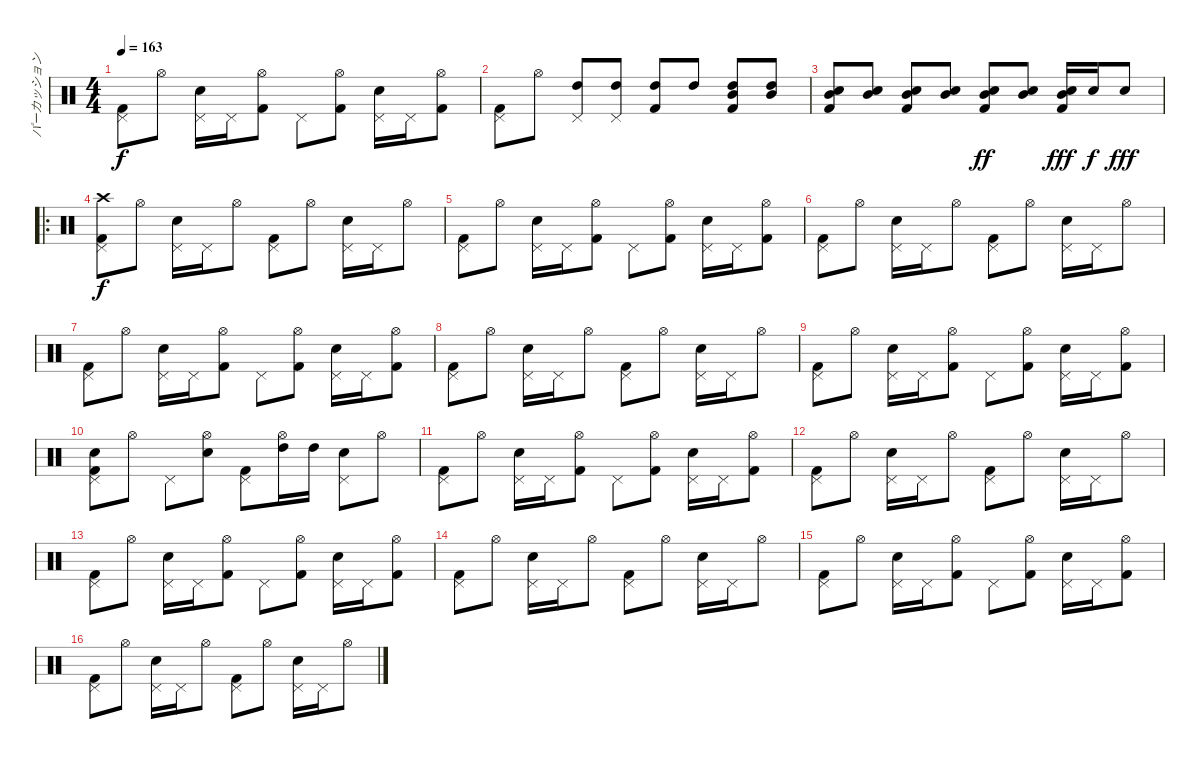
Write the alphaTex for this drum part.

\track ("パーカッション" "パーカッション") {instrument percussion}
\staff {score}
\articulation defaults
\ts (4 4)
\tempo 163
\clef neutral
\ks c
("Pedal Hi-Hat (hit)" "Kick (hit) 2").8{dy f} "Hi-Hat (open)".8 ("Pedal Hi-Hat (hit)" "Snare (hit) 2").16 "Pedal Hi-Hat (hit)".16 ("Hi-Hat (open)" "Kick (hit) 2").8 "Pedal Hi-Hat (hit)".8 ("Hi-Hat (open)" "Kick (hit) 2").8 ("Pedal Hi-Hat (hit)" "Snare (hit) 2").16 "Pedal Hi-Hat (hit)".16 ("Hi-Hat (open)" "Kick (hit) 2").8 |
("Pedal Hi-Hat (hit)" "Kick (hit) 2").8 "Hi-Hat (open)".8 ("Pedal Hi-Hat (hit)" "High Tom (hit)").8 ("Pedal Hi-Hat (hit)" "High Tom (hit)").8 ("High Tom (hit)" "Kick (hit) 2").8 "High Tom (hit)".8 ("Mid Tom (hit)" "High Tom (hit)" "Kick (hit) 2").8 ("Mid Tom (hit)" "High Tom (hit)").8 |
("Mid Tom (hit)" "Snare (hit) 2" "Kick (hit) 2").8 ("Mid Tom (hit)" "Snare (hit) 2").8 ("Mid Tom (hit)" "Snare (hit) 2" "Kick (hit) 2").8 ("Mid Tom (hit)" "Snare (hit) 2").8 ("Mid Tom (hit)" "Snare (hit) 2" "Kick (hit) 2").8{dy ff} ("Mid Tom (hit)" "Snare (hit) 2").8 ("Mid Tom (hit)" "Snare (hit) 2" "Kick (hit) 2").16{dy fff} "Snare (hit) 2".16{dy f} "Snare (hit) 2".8{dy fff} |
\ro
("Crash high (hit)" "Pedal Hi-Hat (hit)" "Kick (hit) 2").8{dy f} "Hi-Hat (open)".8 ("Pedal Hi-Hat (hit)" "Snare (hit) 2").16 "Pedal Hi-Hat (hit)".16 "Hi-Hat (open)".8 ("Pedal Hi-Hat (hit)" "Kick (hit) 2").8 "Hi-Hat (open)".8 ("Pedal Hi-Hat (hit)" "Snare (hit) 2").16 "Pedal Hi-Hat (hit)".16 "Hi-Hat (open)".8 |
("Pedal Hi-Hat (hit)" "Kick (hit) 2").8 "Hi-Hat (open)".8 ("Pedal Hi-Hat (hit)" "Snare (hit) 2").16 "Pedal Hi-Hat (hit)".16 ("Hi-Hat (open)" "Kick (hit) 2").8 "Pedal Hi-Hat (hit)".8 ("Hi-Hat (open)" "Kick (hit) 2").8 ("Pedal Hi-Hat (hit)" "Snare (hit) 2").16 "Pedal Hi-Hat (hit)".16 ("Hi-Hat (open)" "Kick (hit) 2").8 |
("Pedal Hi-Hat (hit)" "Kick (hit) 2").8 "Hi-Hat (open)".8 ("Pedal Hi-Hat (hit)" "Snare (hit) 2").16 "Pedal Hi-Hat (hit)".16 "Hi-Hat (open)".8 ("Pedal Hi-Hat (hit)" "Kick (hit) 2").8 "Hi-Hat (open)".8 ("Pedal Hi-Hat (hit)" "Snare (hit) 2").16 "Pedal Hi-Hat (hit)".16 "Hi-Hat (open)".8 |
("Pedal Hi-Hat (hit)" "Kick (hit) 2").8 "Hi-Hat (open)".8 ("Pedal Hi-Hat (hit)" "Snare (hit) 2").16 "Pedal Hi-Hat (hit)".16 ("Hi-Hat (open)" "Kick (hit) 2").8 "Pedal Hi-Hat (hit)".8 ("Hi-Hat (open)" "Kick (hit) 2").8 ("Pedal Hi-Hat (hit)" "Snare (hit) 2").16 "Pedal Hi-Hat (hit)".16 ("Hi-Hat (open)" "Kick (hit) 2").8 |
("Pedal Hi-Hat (hit)" "Kick (hit) 2").8 "Hi-Hat (open)".8 ("Pedal Hi-Hat (hit)" "Snare (hit) 2").16 "Pedal Hi-Hat (hit)".16 "Hi-Hat (open)".8 ("Pedal Hi-Hat (hit)" "Kick (hit) 2").8 "Hi-Hat (open)".8 ("Pedal Hi-Hat (hit)" "Snare (hit) 2").16 "Pedal Hi-Hat (hit)".16 "Hi-Hat (open)".8 |
("Pedal Hi-Hat (hit)" "Kick (hit) 2").8 "Hi-Hat (open)".8 ("Pedal Hi-Hat (hit)" "Snare (hit) 2").16 "Pedal Hi-Hat (hit)".16 ("Hi-Hat (open)" "Kick (hit) 2").8 "Pedal Hi-Hat (hit)".8 ("Hi-Hat (open)" "Kick (hit) 2").8 ("Pedal Hi-Hat (hit)" "Snare (hit) 2").16 "Pedal Hi-Hat (hit)".16 ("Hi-Hat (open)" "Kick (hit) 2").8 |
("Pedal Hi-Hat (hit)" "Snare (hit) 2" "Kick (hit) 2").8 "Hi-Hat (open)".8 "Pedal Hi-Hat (hit)".8 ("Hi-Hat (open)" "Snare (hit) 2").8 ("Pedal Hi-Hat (hit)" "Kick (hit) 2").8 ("Hi-Hat (open)" "High Tom (hit)").16 "High Tom (hit)".16 ("Pedal Hi-Hat (hit)" "Snare (hit) 2").8 "Hi-Hat (open)".8 |
("Pedal Hi-Hat (hit)" "Kick (hit) 2").8 "Hi-Hat (open)".8 ("Pedal Hi-Hat (hit)" "Snare (hit) 2").16 "Pedal Hi-Hat (hit)".16 ("Hi-Hat (open)" "Kick (hit) 2").8 "Pedal Hi-Hat (hit)".8 ("Hi-Hat (open)" "Kick (hit) 2").8 ("Pedal Hi-Hat (hit)" "Snare (hit) 2").16 "Pedal Hi-Hat (hit)".16 ("Hi-Hat (open)" "Kick (hit) 2").8 |
("Pedal Hi-Hat (hit)" "Kick (hit) 2").8 "Hi-Hat (open)".8 ("Pedal Hi-Hat (hit)" "Snare (hit) 2").16 "Pedal Hi-Hat (hit)".16 "Hi-Hat (open)".8 ("Pedal Hi-Hat (hit)" "Kick (hit) 2").8 "Hi-Hat (open)".8 ("Pedal Hi-Hat (hit)" "Snare (hit) 2").16 "Pedal Hi-Hat (hit)".16 "Hi-Hat (open)".8 |
("Pedal Hi-Hat (hit)" "Kick (hit) 2").8 "Hi-Hat (open)".8 ("Pedal Hi-Hat (hit)" "Snare (hit) 2").16 "Pedal Hi-Hat (hit)".16 ("Hi-Hat (open)" "Kick (hit) 2").8 "Pedal Hi-Hat (hit)".8 ("Hi-Hat (open)" "Kick (hit) 2").8 ("Pedal Hi-Hat (hit)" "Snare (hit) 2").16 "Pedal Hi-Hat (hit)".16 ("Hi-Hat (open)" "Kick (hit) 2").8 |
("Pedal Hi-Hat (hit)" "Kick (hit) 2").8 "Hi-Hat (open)".8 ("Pedal Hi-Hat (hit)" "Snare (hit) 2").16 "Pedal Hi-Hat (hit)".16 "Hi-Hat (open)".8 ("Pedal Hi-Hat (hit)" "Kick (hit) 2").8 "Hi-Hat (open)".8 ("Pedal Hi-Hat (hit)" "Snare (hit) 2").16 "Pedal Hi-Hat (hit)".16 "Hi-Hat (open)".8 |
("Pedal Hi-Hat (hit)" "Kick (hit) 2").8 "Hi-Hat (open)".8 ("Pedal Hi-Hat (hit)" "Snare (hit) 2").16 "Pedal Hi-Hat (hit)".16 ("Hi-Hat (open)" "Kick (hit) 2").8 "Pedal Hi-Hat (hit)".8 ("Hi-Hat (open)" "Kick (hit) 2").8 ("Pedal Hi-Hat (hit)" "Snare (hit) 2").16 "Pedal Hi-Hat (hit)".16 ("Hi-Hat (open)" "Kick (hit) 2").8 |
("Pedal Hi-Hat (hit)" "Kick (hit) 2").8 "Hi-Hat (open)".8 ("Pedal Hi-Hat (hit)" "Snare (hit) 2").16 "Pedal Hi-Hat (hit)".16 "Hi-Hat (open)".8 ("Pedal Hi-Hat (hit)" "Kick (hit) 2").8 "Hi-Hat (open)".8 ("Pedal Hi-Hat (hit)" "Snare (hit) 2").16 "Pedal Hi-Hat (hit)".16 "Hi-Hat (open)".8
